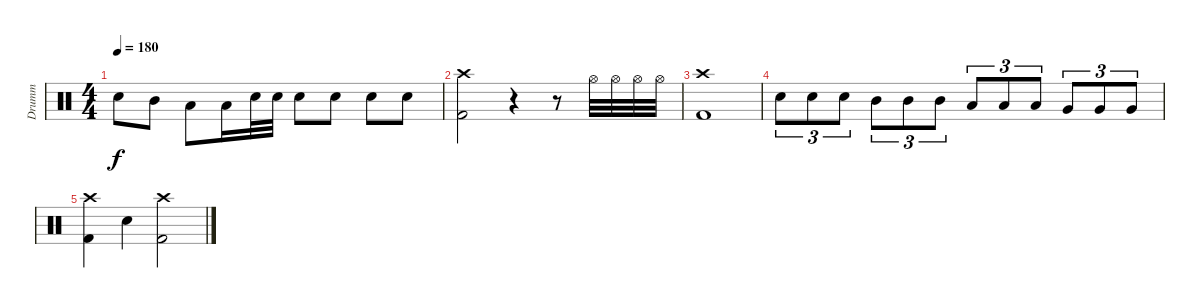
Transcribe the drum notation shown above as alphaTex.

\track ("Drumm" "Drumm") {instrument percussion}
\staff {score}
\articulation defaults
\ts (4 4)
\tempo 180
\clef neutral
\ks c "Electric Snare (hit)".8{dy f} "Mid Tom (hit)".8 "Low Tom (hit)".8 "Low Tom (hit)".16 "Electric Snare (hit)".32 "Electric Snare (hit)".32 "Electric Snare (hit)".8 "Electric Snare (hit)".8 "Electric Snare (hit)".8 "Electric Snare (hit)".8
|
("Kick (hit) 2" "Crash high (hit)").2 r.4 r.8 "Hi-Hat (open)".32 "Hi-Hat (open)".32 "Hi-Hat (open)".32 "Hi-Hat (open)".32 |
("Kick (hit) 2" "Crash high (hit)").1 |
"Electric Snare (hit)".8{tu (3 2)} "Electric Snare (hit)".8{tu (3 2)} "Electric Snare (hit)".8{tu (3 2)} "Mid Tom (hit)".8{tu (3 2)} "Mid Tom (hit)".8{tu (3 2)} "Mid Tom (hit)".8{tu (3 2)} "Low Tom (hit)".8{tu (3 2)} "Low Tom (hit)".8{tu (3 2)} "Low Tom (hit)".8{tu (3 2)} "Very Low Tom (hit)".8{tu (3 2)} "Very Low Tom (hit)".8{tu (3 2)} "Very Low Tom (hit)".8{tu (3 2)} |
("Kick (hit) 2" "Crash high (hit)").4 "Electric Snare (hit)".4 ("Kick (hit) 2" "Crash high (hit)").2
